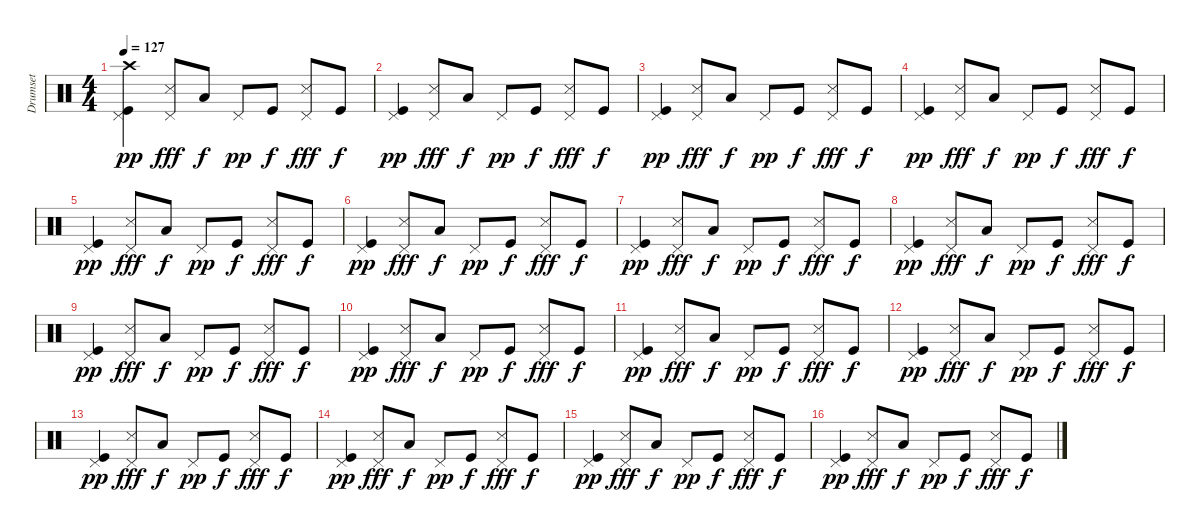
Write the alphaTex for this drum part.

\track ("Drumset" "Drumset") {instrument percussion}
\staff {score}
\articulation defaults
\ts (4 4)
\tempo 127
\clef neutral
\ks c
("Crash high (hit)" "Pedal Hi-Hat (hit)" "Kick (hit)").4{dy pp} ("Pedal Hi-Hat (hit)" "Snare (side stick) 3").8{dy fff} "Low Tom (hit)".8{dy f} "Pedal Hi-Hat (hit)".8{dy pp} "Kick (hit)".8{dy f} ("Pedal Hi-Hat (hit)" "Snare (side stick) 3").8{dy fff} "Kick (hit)".8{dy f} |
("Pedal Hi-Hat (hit)" "Kick (hit)").4{dy pp} ("Pedal Hi-Hat (hit)" "Snare (side stick) 3").8{dy fff} "Low Tom (hit)".8{dy f} "Pedal Hi-Hat (hit)".8{dy pp} "Kick (hit)".8{dy f} ("Pedal Hi-Hat (hit)" "Snare (side stick) 3").8{dy fff} "Kick (hit)".8{dy f} |
("Pedal Hi-Hat (hit)" "Kick (hit)").4{dy pp} ("Pedal Hi-Hat (hit)" "Snare (side stick) 3").8{dy fff} "Low Tom (hit)".8{dy f} "Pedal Hi-Hat (hit)".8{dy pp} "Kick (hit)".8{dy f} ("Pedal Hi-Hat (hit)" "Snare (side stick) 3").8{dy fff} "Kick (hit)".8{dy f} |
("Pedal Hi-Hat (hit)" "Kick (hit)").4{dy pp} ("Pedal Hi-Hat (hit)" "Snare (side stick) 3").8{dy fff} "Low Tom (hit)".8{dy f} "Pedal Hi-Hat (hit)".8{dy pp} "Kick (hit)".8{dy f} ("Pedal Hi-Hat (hit)" "Snare (side stick) 3").8{dy fff} "Kick (hit)".8{dy f} |
("Pedal Hi-Hat (hit)" "Kick (hit)").4{dy pp} ("Pedal Hi-Hat (hit)" "Snare (side stick) 3").8{dy fff} "Low Tom (hit)".8{dy f} "Pedal Hi-Hat (hit)".8{dy pp} "Kick (hit)".8{dy f} ("Pedal Hi-Hat (hit)" "Snare (side stick) 3").8{dy fff} "Kick (hit)".8{dy f} |
("Pedal Hi-Hat (hit)" "Kick (hit)").4{dy pp} ("Pedal Hi-Hat (hit)" "Snare (side stick) 3").8{dy fff} "Low Tom (hit)".8{dy f} "Pedal Hi-Hat (hit)".8{dy pp} "Kick (hit)".8{dy f} ("Pedal Hi-Hat (hit)" "Snare (side stick) 3").8{dy fff} "Kick (hit)".8{dy f} |
("Pedal Hi-Hat (hit)" "Kick (hit)").4{dy pp} ("Pedal Hi-Hat (hit)" "Snare (side stick) 3").8{dy fff} "Low Tom (hit)".8{dy f} "Pedal Hi-Hat (hit)".8{dy pp} "Kick (hit)".8{dy f} ("Pedal Hi-Hat (hit)" "Snare (side stick) 3").8{dy fff} "Kick (hit)".8{dy f} |
("Pedal Hi-Hat (hit)" "Kick (hit)").4{dy pp} ("Pedal Hi-Hat (hit)" "Snare (side stick) 3").8{dy fff} "Low Tom (hit)".8{dy f} "Pedal Hi-Hat (hit)".8{dy pp} "Kick (hit)".8{dy f} ("Pedal Hi-Hat (hit)" "Snare (side stick) 3").8{dy fff} "Kick (hit)".8{dy f} |
("Pedal Hi-Hat (hit)" "Kick (hit)").4{dy pp} ("Pedal Hi-Hat (hit)" "Snare (side stick) 3").8{dy fff} "Low Tom (hit)".8{dy f} "Pedal Hi-Hat (hit)".8{dy pp} "Kick (hit)".8{dy f} ("Pedal Hi-Hat (hit)" "Snare (side stick) 3").8{dy fff} "Kick (hit)".8{dy f} |
("Pedal Hi-Hat (hit)" "Kick (hit)").4{dy pp} ("Pedal Hi-Hat (hit)" "Snare (side stick) 3").8{dy fff} "Low Tom (hit)".8{dy f} "Pedal Hi-Hat (hit)".8{dy pp} "Kick (hit)".8{dy f} ("Pedal Hi-Hat (hit)" "Snare (side stick) 3").8{dy fff} "Kick (hit)".8{dy f} |
("Pedal Hi-Hat (hit)" "Kick (hit)").4{dy pp} ("Pedal Hi-Hat (hit)" "Snare (side stick) 3").8{dy fff} "Low Tom (hit)".8{dy f} "Pedal Hi-Hat (hit)".8{dy pp} "Kick (hit)".8{dy f} ("Pedal Hi-Hat (hit)" "Snare (side stick) 3").8{dy fff} "Kick (hit)".8{dy f} |
("Pedal Hi-Hat (hit)" "Kick (hit)").4{dy pp} ("Pedal Hi-Hat (hit)" "Snare (side stick) 3").8{dy fff} "Low Tom (hit)".8{dy f} "Pedal Hi-Hat (hit)".8{dy pp} "Kick (hit)".8{dy f} ("Pedal Hi-Hat (hit)" "Snare (side stick) 3").8{dy fff} "Kick (hit)".8{dy f} |
("Pedal Hi-Hat (hit)" "Kick (hit)").4{dy pp} ("Pedal Hi-Hat (hit)" "Snare (side stick) 3").8{dy fff} "Low Tom (hit)".8{dy f} "Pedal Hi-Hat (hit)".8{dy pp} "Kick (hit)".8{dy f} ("Pedal Hi-Hat (hit)" "Snare (side stick) 3").8{dy fff} "Kick (hit)".8{dy f} |
("Pedal Hi-Hat (hit)" "Kick (hit)").4{dy pp} ("Pedal Hi-Hat (hit)" "Snare (side stick) 3").8{dy fff} "Low Tom (hit)".8{dy f} "Pedal Hi-Hat (hit)".8{dy pp} "Kick (hit)".8{dy f} ("Pedal Hi-Hat (hit)" "Snare (side stick) 3").8{dy fff} "Kick (hit)".8{dy f} |
("Pedal Hi-Hat (hit)" "Kick (hit)").4{dy pp} ("Pedal Hi-Hat (hit)" "Snare (side stick) 3").8{dy fff} "Low Tom (hit)".8{dy f} "Pedal Hi-Hat (hit)".8{dy pp} "Kick (hit)".8{dy f} ("Pedal Hi-Hat (hit)" "Snare (side stick) 3").8{dy fff} "Kick (hit)".8{dy f} |
("Pedal Hi-Hat (hit)" "Kick (hit)").4{dy pp} ("Pedal Hi-Hat (hit)" "Snare (side stick) 3").8{dy fff} "Low Tom (hit)".8{dy f} "Pedal Hi-Hat (hit)".8{dy pp} "Kick (hit)".8{dy f} ("Pedal Hi-Hat (hit)" "Snare (side stick) 3").8{dy fff} "Kick (hit)".8{dy f}
